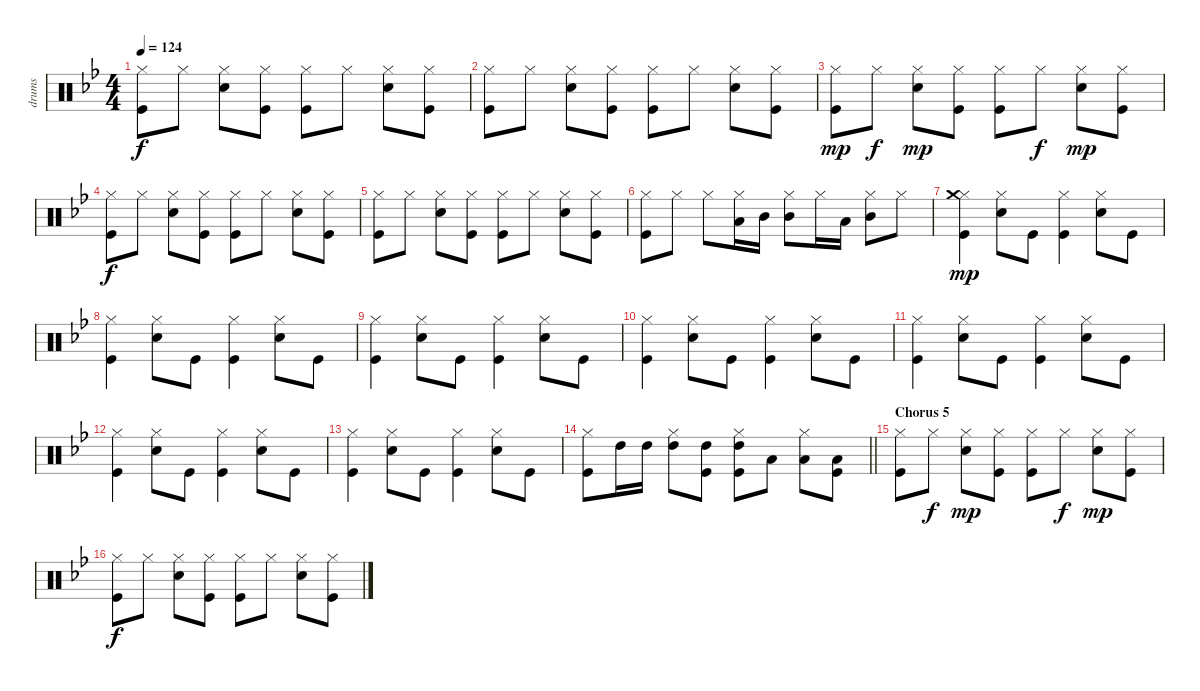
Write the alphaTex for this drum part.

\track ("drums" "drums") {instrument percussion}
\staff {score}
\articulation defaults
\ts (4 4)
\tempo 124
\clef neutral
\ks bb
("Hi-Hat (closed)" "Kick (hit)").8{dy f} "Hi-Hat (closed)".8 ("Electric Snare (hit)" "Hi-Hat (closed)").8 ("Hi-Hat (closed)" "Kick (hit)").8 ("Hi-Hat (closed)" "Kick (hit)").8 "Hi-Hat (closed)".8 ("Electric Snare (hit)" "Hi-Hat (closed)").8 ("Hi-Hat (closed)" "Kick (hit)").8 |
("Hi-Hat (closed)" "Kick (hit)").8 "Hi-Hat (closed)".8 ("Electric Snare (hit)" "Hi-Hat (closed)").8 ("Hi-Hat (closed)" "Kick (hit)").8 ("Hi-Hat (closed)" "Kick (hit)").8 "Hi-Hat (closed)".8 ("Electric Snare (hit)" "Hi-Hat (closed)").8 ("Hi-Hat (closed)" "Kick (hit)").8 |
("Hi-Hat (closed)" "Kick (hit)").8{dy mp} "Hi-Hat (closed)".8{dy f} ("Electric Snare (hit)" "Hi-Hat (closed)").8{dy mp} ("Hi-Hat (closed)" "Kick (hit)").8 ("Hi-Hat (closed)" "Kick (hit)").8 "Hi-Hat (closed)".8{dy f} ("Electric Snare (hit)" "Hi-Hat (closed)").8{dy mp} ("Hi-Hat (closed)" "Kick (hit)").8 |
("Hi-Hat (closed)" "Kick (hit)").8{dy f} "Hi-Hat (closed)".8 ("Electric Snare (hit)" "Hi-Hat (closed)").8 ("Hi-Hat (closed)" "Kick (hit)").8 ("Hi-Hat (closed)" "Kick (hit)").8 "Hi-Hat (closed)".8 ("Electric Snare (hit)" "Hi-Hat (closed)").8 ("Hi-Hat (closed)" "Kick (hit)").8 |
("Hi-Hat (closed)" "Kick (hit)").8 "Hi-Hat (closed)".8 ("Electric Snare (hit)" "Hi-Hat (closed)").8 ("Hi-Hat (closed)" "Kick (hit)").8 ("Hi-Hat (closed)" "Kick (hit)").8 "Hi-Hat (closed)".8 ("Electric Snare (hit)" "Hi-Hat (closed)").8 ("Hi-Hat (closed)" "Kick (hit)").8 |
("Hi-Hat (closed)" "Kick (hit)").8 "Hi-Hat (closed)".8 "Hi-Hat (closed)".8 ("Low Tom (hit)" "Hi-Hat (closed)").16 "Mid Tom (hit)".16 ("Mid Tom (hit)" "Hi-Hat (closed)").8 "Hi-Hat (closed)".16 "Low Tom (hit)".16 ("Mid Tom (hit)" "Hi-Hat (closed)").8 "Hi-Hat (closed)".8 |
("Kick (hit)" "Hi-Hat (closed)" "Crash medium (hit)").4{dy mp} ("Electric Snare (hit)" "Hi-Hat (closed)").8 "Kick (hit)".8 ("Kick (hit)" "Hi-Hat (closed)").4 ("Electric Snare (hit)" "Hi-Hat (closed)").8 "Kick (hit)".8 |
("Kick (hit)" "Hi-Hat (closed)").4 ("Electric Snare (hit)" "Hi-Hat (closed)").8 "Kick (hit)".8 ("Kick (hit)" "Hi-Hat (closed)").4 ("Electric Snare (hit)" "Hi-Hat (closed)").8 "Kick (hit)".8 |
("Kick (hit)" "Hi-Hat (closed)").4 ("Electric Snare (hit)" "Hi-Hat (closed)").8 "Kick (hit)".8 ("Kick (hit)" "Hi-Hat (closed)").4 ("Electric Snare (hit)" "Hi-Hat (closed)").8 "Kick (hit)".8 |
("Kick (hit)" "Hi-Hat (closed)").4 ("Electric Snare (hit)" "Hi-Hat (closed)").8 "Kick (hit)".8 ("Kick (hit)" "Hi-Hat (closed)").4 ("Electric Snare (hit)" "Hi-Hat (closed)").8 "Kick (hit)".8 |
("Kick (hit)" "Hi-Hat (closed)").4 ("Electric Snare (hit)" "Hi-Hat (closed)").8 "Kick (hit)".8 ("Kick (hit)" "Hi-Hat (closed)").4 ("Electric Snare (hit)" "Hi-Hat (closed)").8 "Kick (hit)".8 |
("Kick (hit)" "Hi-Hat (closed)").4 ("Electric Snare (hit)" "Hi-Hat (closed)").8 "Kick (hit)".8 ("Kick (hit)" "Hi-Hat (closed)").4 ("Electric Snare (hit)" "Hi-Hat (closed)").8 "Kick (hit)".8 |
("Kick (hit)" "Hi-Hat (closed)").4 ("Electric Snare (hit)" "Hi-Hat (closed)").8 "Kick (hit)".8 ("Kick (hit)" "Hi-Hat (closed)").4 ("Electric Snare (hit)" "Hi-Hat (closed)").8 "Kick (hit)".8 |
\barLineRight lightlight
("Kick (hit)" "Hi-Hat (closed)").8 "High Tom (hit)".16 "High Tom (hit)".16 ("Hi-Hat (closed)" "High Tom (hit)").8 ("Kick (hit)" "High Tom (hit)").8 ("Kick (hit)" "Hi-Hat (closed)" "High Tom (hit)").8 "Low Tom (hit)".8 ("Low Floor Tom (hit)" "Hi-Hat (closed)").8 ("Low Floor Tom (hit)" "Kick (hit)").8 |
\section ("" "Chorus 5")
("Hi-Hat (closed)" "Kick (hit)").8 "Hi-Hat (closed)".8{dy f} ("Electric Snare (hit)" "Hi-Hat (closed)").8{dy mp} ("Hi-Hat (closed)" "Kick (hit)").8 ("Hi-Hat (closed)" "Kick (hit)").8 "Hi-Hat (closed)".8{dy f} ("Electric Snare (hit)" "Hi-Hat (closed)").8{dy mp} ("Hi-Hat (closed)" "Kick (hit)").8 |
("Hi-Hat (closed)" "Kick (hit)").8{dy f} "Hi-Hat (closed)".8 ("Electric Snare (hit)" "Hi-Hat (closed)").8 ("Hi-Hat (closed)" "Kick (hit)").8 ("Hi-Hat (closed)" "Kick (hit)").8 "Hi-Hat (closed)".8 ("Electric Snare (hit)" "Hi-Hat (closed)").8 ("Hi-Hat (closed)" "Kick (hit)").8
